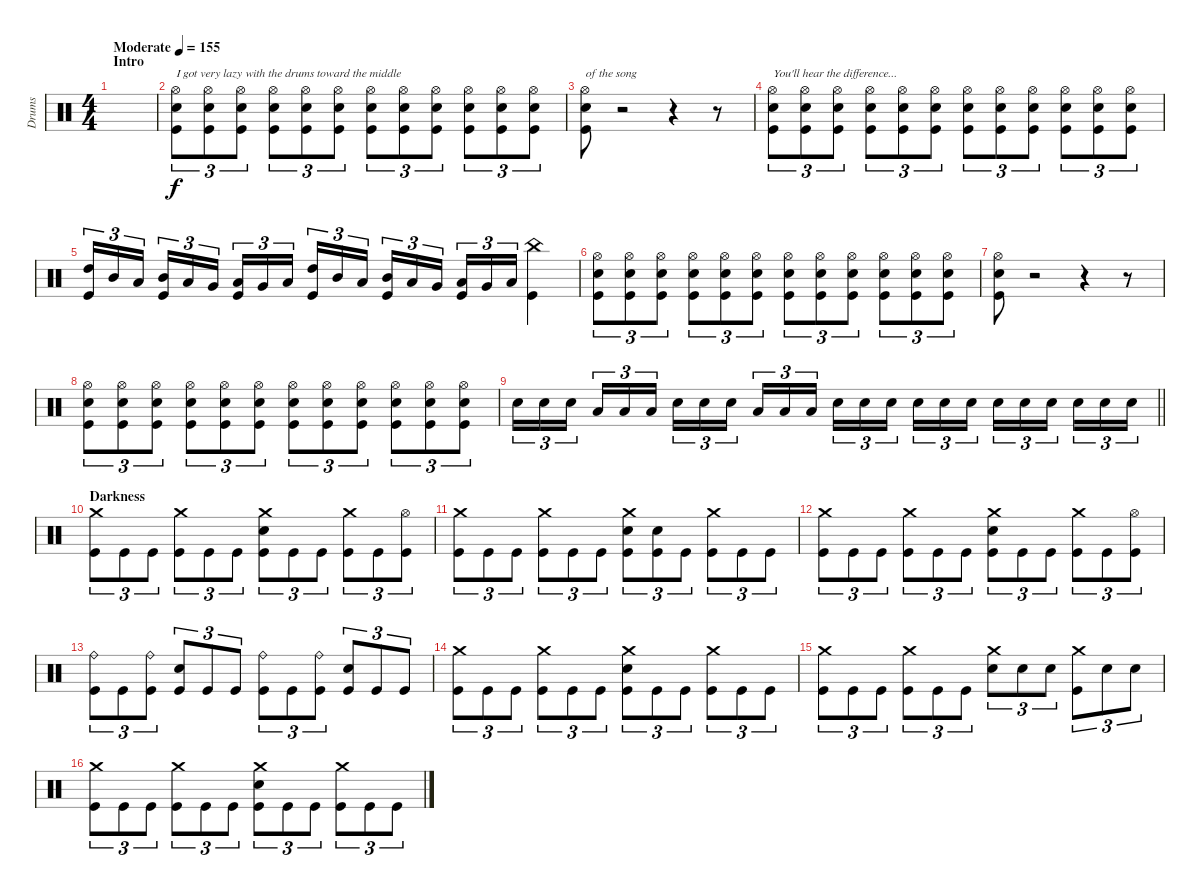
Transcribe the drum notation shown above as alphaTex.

\track ("Drums" "Drums") {instrument percussion}
\staff {score}
\articulation defaults
\ts (4 4)
\section ("" "Intro")
\tempo (155 "Moderate")
\clef neutral
\ks c
|
("Hi-Hat (open)" "Electric Snare (hit)" "Kick (hit)").8{tu (3 2) txt "I got very lazy with the drums toward the middle"} ("Hi-Hat (open)" "Electric Snare (hit)" "Kick (hit)").8{tu (3 2)} ("Hi-Hat (open)" "Electric Snare (hit)" "Kick (hit)").8{tu (3 2)} ("Hi-Hat (open)" "Electric Snare (hit)" "Kick (hit)").8{tu (3 2)} ("Hi-Hat (open)" "Electric Snare (hit)" "Kick (hit)").8{tu (3 2)} ("Hi-Hat (open)" "Electric Snare (hit)" "Kick (hit)").8{tu (3 2)} ("Hi-Hat (open)" "Electric Snare (hit)" "Kick (hit)").8{tu (3 2)} ("Hi-Hat (open)" "Electric Snare (hit)" "Kick (hit)").8{tu (3 2)} ("Hi-Hat (open)" "Electric Snare (hit)" "Kick (hit)").8{tu (3 2)} ("Hi-Hat (open)" "Electric Snare (hit)" "Kick (hit)").8{tu (3 2)} ("Hi-Hat (open)" "Electric Snare (hit)" "Kick (hit)").8{tu (3 2)} ("Hi-Hat (open)" "Electric Snare (hit)" "Kick (hit)").8{tu (3 2)} |
("Hi-Hat (open)" "Electric Snare (hit)" "Kick (hit)").8{txt "of the song"} r.2 r.4 r.8 |
("Hi-Hat (open)" "Electric Snare (hit)" "Kick (hit)").8{tu (3 2) txt "You'll hear the difference..."} ("Hi-Hat (open)" "Electric Snare (hit)" "Kick (hit)").8{tu (3 2)} ("Hi-Hat (open)" "Electric Snare (hit)" "Kick (hit)").8{tu (3 2)} ("Hi-Hat (open)" "Electric Snare (hit)" "Kick (hit)").8{tu (3 2)} ("Hi-Hat (open)" "Electric Snare (hit)" "Kick (hit)").8{tu (3 2)} ("Hi-Hat (open)" "Electric Snare (hit)" "Kick (hit)").8{tu (3 2)} ("Hi-Hat (open)" "Electric Snare (hit)" "Kick (hit)").8{tu (3 2)} ("Hi-Hat (open)" "Electric Snare (hit)" "Kick (hit)").8{tu (3 2)} ("Hi-Hat (open)" "Electric Snare (hit)" "Kick (hit)").8{tu (3 2)} ("Hi-Hat (open)" "Electric Snare (hit)" "Kick (hit)").8{tu (3 2)} ("Hi-Hat (open)" "Electric Snare (hit)" "Kick (hit)").8{tu (3 2)} ("Hi-Hat (open)" "Electric Snare (hit)" "Kick (hit)").8{tu (3 2)} |
("High Tom (hit)" "Kick (hit)").16{tu (3 2)} "Mid Tom (hit)".16{tu (3 2)} "Low Tom (hit)".16{tu (3 2) beam splitsecondary} ("Mid Tom (hit)" "Kick (hit)").16{tu (3 2)} "Low Tom (hit)".16{tu (3 2)} "Very Low Tom (hit)".16{tu (3 2)} ("Low Tom (hit)" "Kick (hit)").16{tu (3 2)} "Very Low Tom (hit)".16{tu (3 2)} "Low Floor Tom (hit)".16{tu (3 2) beam splitsecondary} ("High Tom (hit)" "Kick (hit)").16{tu (3 2)} "Mid Tom (hit)".16{tu (3 2)} "Low Tom (hit)".16{tu (3 2)} ("Mid Tom (hit)" "Kick (hit)").16{tu (3 2)} "Low Tom (hit)".16{tu (3 2)} "Very Low Tom (hit)".16{tu (3 2) beam splitsecondary} ("Low Tom (hit)" "Kick (hit)").16{tu (3 2)} "Very Low Tom (hit)".16{tu (3 2)} "Low Floor Tom (hit)".16{tu (3 2)} ("China (hit)" "Kick (hit)").4 |
("Hi-Hat (open)" "Electric Snare (hit)" "Kick (hit)").8{tu (3 2)} ("Hi-Hat (open)" "Electric Snare (hit)" "Kick (hit)").8{tu (3 2)} ("Hi-Hat (open)" "Electric Snare (hit)" "Kick (hit)").8{tu (3 2)} ("Hi-Hat (open)" "Electric Snare (hit)" "Kick (hit)").8{tu (3 2)} ("Hi-Hat (open)" "Electric Snare (hit)" "Kick (hit)").8{tu (3 2)} ("Hi-Hat (open)" "Electric Snare (hit)" "Kick (hit)").8{tu (3 2)} ("Hi-Hat (open)" "Electric Snare (hit)" "Kick (hit)").8{tu (3 2)} ("Hi-Hat (open)" "Electric Snare (hit)" "Kick (hit)").8{tu (3 2)} ("Hi-Hat (open)" "Electric Snare (hit)" "Kick (hit)").8{tu (3 2)} ("Hi-Hat (open)" "Electric Snare (hit)" "Kick (hit)").8{tu (3 2)} ("Hi-Hat (open)" "Electric Snare (hit)" "Kick (hit)").8{tu (3 2)} ("Hi-Hat (open)" "Electric Snare (hit)" "Kick (hit)").8{tu (3 2)} |
("Hi-Hat (open)" "Electric Snare (hit)" "Kick (hit)").8 r.2 r.4 r.8 |
("Hi-Hat (open)" "Electric Snare (hit)" "Kick (hit)").8{tu (3 2)} ("Hi-Hat (open)" "Electric Snare (hit)" "Kick (hit)").8{tu (3 2)} ("Hi-Hat (open)" "Electric Snare (hit)" "Kick (hit)").8{tu (3 2)} ("Hi-Hat (open)" "Electric Snare (hit)" "Kick (hit)").8{tu (3 2)} ("Hi-Hat (open)" "Electric Snare (hit)" "Kick (hit)").8{tu (3 2)} ("Hi-Hat (open)" "Electric Snare (hit)" "Kick (hit)").8{tu (3 2)} ("Hi-Hat (open)" "Electric Snare (hit)" "Kick (hit)").8{tu (3 2)} ("Hi-Hat (open)" "Electric Snare (hit)" "Kick (hit)").8{tu (3 2)} ("Hi-Hat (open)" "Electric Snare (hit)" "Kick (hit)").8{tu (3 2)} ("Hi-Hat (open)" "Electric Snare (hit)" "Kick (hit)").8{tu (3 2)} ("Hi-Hat (open)" "Electric Snare (hit)" "Kick (hit)").8{tu (3 2)} ("Hi-Hat (open)" "Electric Snare (hit)" "Kick (hit)").8{tu (3 2)} |
\barLineRight lightlight "Electric Snare (hit)".16{tu (3 2)} "Electric Snare (hit)".16{tu (3 2)} "Electric Snare (hit)".16{tu (3 2) beam splitsecondary} "Low Tom (hit)".16{tu (3 2)} "Low Tom (hit)".16{tu (3 2)} "Low Tom (hit)".16{tu (3 2)} "Electric Snare (hit)".16{tu (3 2)} "Electric Snare (hit)".16{tu (3 2)} "Electric Snare (hit)".16{tu (3 2) beam splitsecondary} "Low Tom (hit)".16{tu (3 2)} "Low Tom (hit)".16{tu (3 2)} "Low Tom (hit)".16{tu (3 2)} "Electric Snare (hit)".16{tu (3 2)} "Electric Snare (hit)".16{tu (3 2)} "Electric Snare (hit)".16{tu (3 2) beam splitsecondary} "Electric Snare (hit)".16{tu (3 2)} "Electric Snare (hit)".16{tu (3 2)} "Electric Snare (hit)".16{tu (3 2)} "Electric Snare (hit)".16{tu (3 2)} "Electric Snare (hit)".16{tu (3 2)} "Electric Snare (hit)".16{tu (3 2) beam splitsecondary} "Electric Snare (hit)".16{tu (3 2)} "Electric Snare (hit)".16{tu (3 2)} "Electric Snare (hit)".16{tu (3 2)}
|
\section ("" "Darkness")
("Crash medium (hit)" "Kick (hit)").8{tu (3 2)} "Kick (hit)".8{tu (3 2)} "Kick (hit)".8{tu (3 2)} ("Crash medium (hit)" "Kick (hit)").8{tu (3 2)} "Kick (hit)".8{tu (3 2)} "Kick (hit)".8{tu (3 2)} ("Crash medium (hit)" "Electric Snare (hit)" "Kick (hit)").8{tu (3 2)} "Kick (hit)".8{tu (3 2)} "Kick (hit)".8{tu (3 2)} ("Crash medium (hit)" "Kick (hit)").8{tu (3 2)} "Kick (hit)".8{tu (3 2)} ("Hi-Hat (open)" "Kick (hit)").8{tu (3 2)} |
("Crash medium (hit)" "Kick (hit)").8{tu (3 2)} "Kick (hit)".8{tu (3 2)} "Kick (hit)".8{tu (3 2)} ("Crash medium (hit)" "Kick (hit)").8{tu (3 2)} "Kick (hit)".8{tu (3 2)} "Kick (hit)".8{tu (3 2)} ("Crash medium (hit)" "Electric Snare (hit)" "Kick (hit)").8{tu (3 2)} ("Electric Snare (hit)" "Kick (hit)").8{tu (3 2)} "Kick (hit)".8{tu (3 2)} ("Crash medium (hit)" "Kick (hit)").8{tu (3 2)} "Kick (hit)".8{tu (3 2)} "Kick (hit)".8{tu (3 2)} |
("Crash medium (hit)" "Kick (hit)").8{tu (3 2)} "Kick (hit)".8{tu (3 2)} "Kick (hit)".8{tu (3 2)} ("Crash medium (hit)" "Kick (hit)").8{tu (3 2)} "Kick (hit)".8{tu (3 2)} "Kick (hit)".8{tu (3 2)} ("Crash medium (hit)" "Electric Snare (hit)" "Kick (hit)").8{tu (3 2)} "Kick (hit)".8{tu (3 2)} "Kick (hit)".8{tu (3 2)} ("Crash medium (hit)" "Kick (hit)").8{tu (3 2)} "Kick (hit)".8{tu (3 2)} ("Hi-Hat (open)" "Kick (hit)").8{tu (3 2)} |
("Ride (bell)" "Kick (hit)").8{tu (3 2)} "Kick (hit)".8{tu (3 2)} ("Ride (bell)" "Kick (hit)").8{tu (3 2)} ("Electric Snare (hit)" "Kick (hit)").8{tu (3 2)} "Kick (hit)".8{tu (3 2)} "Kick (hit)".8{tu (3 2)} ("Ride (bell)" "Kick (hit)").8{tu (3 2)} "Kick (hit)".8{tu (3 2)} ("Ride (bell)" "Kick (hit)").8{tu (3 2)} ("Electric Snare (hit)" "Kick (hit)").8{tu (3 2)} "Kick (hit)".8{tu (3 2)} "Kick (hit)".8{tu (3 2)} |
("Crash medium (hit)" "Kick (hit)").8{tu (3 2)} "Kick (hit)".8{tu (3 2)} "Kick (hit)".8{tu (3 2)} ("Crash medium (hit)" "Kick (hit)").8{tu (3 2)} "Kick (hit)".8{tu (3 2)} "Kick (hit)".8{tu (3 2)} ("Crash medium (hit)" "Electric Snare (hit)" "Kick (hit)").8{tu (3 2)} "Kick (hit)".8{tu (3 2)} "Kick (hit)".8{tu (3 2)} ("Crash medium (hit)" "Kick (hit)").8{tu (3 2)} "Kick (hit)".8{tu (3 2)} "Kick (hit)".8{tu (3 2)} |
("Crash medium (hit)" "Kick (hit)").8{tu (3 2)} "Kick (hit)".8{tu (3 2)} "Kick (hit)".8{tu (3 2)} ("Crash medium (hit)" "Kick (hit)").8{tu (3 2)} "Kick (hit)".8{tu (3 2)} "Kick (hit)".8{tu (3 2)} ("Crash medium (hit)" "Electric Snare (hit)").8{tu (3 2)} "Electric Snare (hit)".8{tu (3 2)} "Electric Snare (hit)".8{tu (3 2)} ("Crash medium (hit)" "Kick (hit)").8{tu (3 2)} "Electric Snare (hit)".8{tu (3 2)} "Electric Snare (hit)".8{tu (3 2)} |
("Crash medium (hit)" "Kick (hit)").8{tu (3 2)} "Kick (hit)".8{tu (3 2)} "Kick (hit)".8{tu (3 2)} ("Crash medium (hit)" "Kick (hit)").8{tu (3 2)} "Kick (hit)".8{tu (3 2)} "Kick (hit)".8{tu (3 2)} ("Crash medium (hit)" "Electric Snare (hit)" "Kick (hit)").8{tu (3 2)} "Kick (hit)".8{tu (3 2)} "Kick (hit)".8{tu (3 2)} ("Crash medium (hit)" "Kick (hit)").8{tu (3 2)} "Kick (hit)".8{tu (3 2)} "Kick (hit)".8{tu (3 2)}
